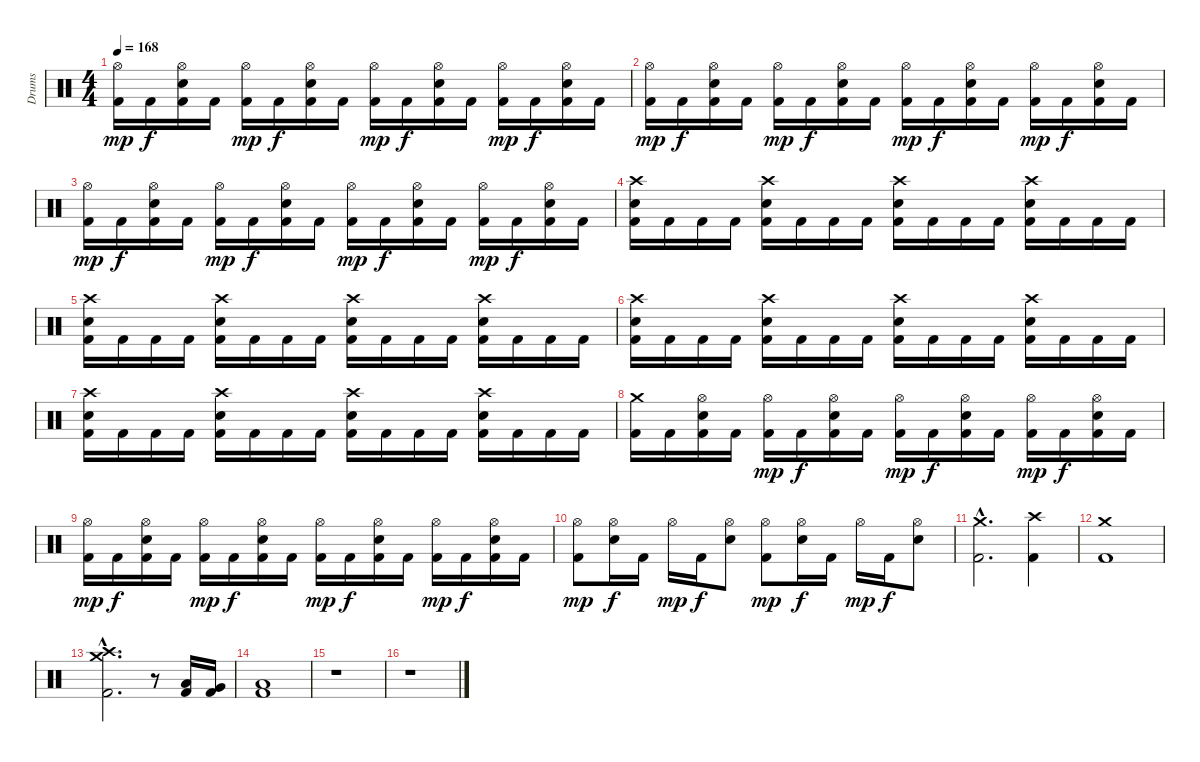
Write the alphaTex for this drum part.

\track ("Drums" "Drums") {instrument percussion}
\staff {score}
\articulation defaults
\ts (4 4)
\tempo 168
\clef neutral
\ks c
("Kick (hit) 2" "Hi-Hat (open)").16{dy mp} "Kick (hit) 2".16{dy f} ("Kick (hit) 2" "Electric Snare (hit)" "Hi-Hat (open)").16 "Kick (hit) 2".16 ("Kick (hit) 2" "Hi-Hat (open)").16{dy mp} "Kick (hit) 2".16{dy f} ("Kick (hit) 2" "Electric Snare (hit)" "Hi-Hat (open)").16 "Kick (hit) 2".16 ("Kick (hit) 2" "Hi-Hat (open)").16{dy mp} "Kick (hit) 2".16{dy f} ("Kick (hit) 2" "Electric Snare (hit)" "Hi-Hat (open)").16 "Kick (hit) 2".16 ("Kick (hit) 2" "Hi-Hat (open)").16{dy mp} "Kick (hit) 2".16{dy f} ("Kick (hit) 2" "Electric Snare (hit)" "Hi-Hat (open)").16 "Kick (hit) 2".16 |
("Kick (hit) 2" "Hi-Hat (open)").16{dy mp} "Kick (hit) 2".16{dy f} ("Kick (hit) 2" "Electric Snare (hit)" "Hi-Hat (open)").16 "Kick (hit) 2".16 ("Kick (hit) 2" "Hi-Hat (open)").16{dy mp} "Kick (hit) 2".16{dy f} ("Kick (hit) 2" "Electric Snare (hit)" "Hi-Hat (open)").16 "Kick (hit) 2".16 ("Kick (hit) 2" "Hi-Hat (open)").16{dy mp} "Kick (hit) 2".16{dy f} ("Kick (hit) 2" "Electric Snare (hit)" "Hi-Hat (open)").16 "Kick (hit) 2".16 ("Kick (hit) 2" "Hi-Hat (open)").16{dy mp} "Kick (hit) 2".16{dy f} ("Kick (hit) 2" "Electric Snare (hit)" "Hi-Hat (open)").16 "Kick (hit) 2".16 |
("Kick (hit) 2" "Hi-Hat (open)").16{dy mp} "Kick (hit) 2".16{dy f} ("Kick (hit) 2" "Electric Snare (hit)" "Hi-Hat (open)").16 "Kick (hit) 2".16 ("Kick (hit) 2" "Hi-Hat (open)").16{dy mp} "Kick (hit) 2".16{dy f} ("Kick (hit) 2" "Electric Snare (hit)" "Hi-Hat (open)").16 "Kick (hit) 2".16 ("Kick (hit) 2" "Hi-Hat (open)").16{dy mp} "Kick (hit) 2".16{dy f} ("Kick (hit) 2" "Electric Snare (hit)" "Hi-Hat (open)").16 "Kick (hit) 2".16 ("Kick (hit) 2" "Hi-Hat (open)").16{dy mp} "Kick (hit) 2".16{dy f} ("Kick (hit) 2" "Electric Snare (hit)" "Hi-Hat (open)").16 "Kick (hit) 2".16 |
\section ("" "")
("Kick (hit) 2" "Electric Snare (hit)" "Crash high (hit)").16 "Kick (hit) 2".16 "Kick (hit) 2".16 "Kick (hit) 2".16 ("Kick (hit) 2" "Electric Snare (hit)" "Crash high (hit)").16 "Kick (hit) 2".16 "Kick (hit) 2".16 "Kick (hit) 2".16 ("Kick (hit) 2" "Electric Snare (hit)" "Crash high (hit)").16 "Kick (hit) 2".16 "Kick (hit) 2".16 "Kick (hit) 2".16 ("Kick (hit) 2" "Electric Snare (hit)" "Crash high (hit)").16 "Kick (hit) 2".16 "Kick (hit) 2".16 "Kick (hit) 2".16 |
("Kick (hit) 2" "Electric Snare (hit)" "Crash high (hit)").16 "Kick (hit) 2".16 "Kick (hit) 2".16 "Kick (hit) 2".16 ("Kick (hit) 2" "Electric Snare (hit)" "Crash high (hit)").16 "Kick (hit) 2".16 "Kick (hit) 2".16 "Kick (hit) 2".16 ("Kick (hit) 2" "Electric Snare (hit)" "Crash high (hit)").16 "Kick (hit) 2".16 "Kick (hit) 2".16 "Kick (hit) 2".16 ("Kick (hit) 2" "Electric Snare (hit)" "Crash high (hit)").16 "Kick (hit) 2".16 "Kick (hit) 2".16 "Kick (hit) 2".16 |
("Kick (hit) 2" "Electric Snare (hit)" "Crash high (hit)").16 "Kick (hit) 2".16 "Kick (hit) 2".16 "Kick (hit) 2".16 ("Kick (hit) 2" "Electric Snare (hit)" "Crash high (hit)").16 "Kick (hit) 2".16 "Kick (hit) 2".16 "Kick (hit) 2".16 ("Kick (hit) 2" "Electric Snare (hit)" "Crash high (hit)").16 "Kick (hit) 2".16 "Kick (hit) 2".16 "Kick (hit) 2".16 ("Kick (hit) 2" "Electric Snare (hit)" "Crash high (hit)").16 "Kick (hit) 2".16 "Kick (hit) 2".16 "Kick (hit) 2".16 |
("Kick (hit) 2" "Electric Snare (hit)" "Crash high (hit)").16 "Kick (hit) 2".16 "Kick (hit) 2".16 "Kick (hit) 2".16 ("Kick (hit) 2" "Electric Snare (hit)" "Crash high (hit)").16 "Kick (hit) 2".16 "Kick (hit) 2".16 "Kick (hit) 2".16 ("Kick (hit) 2" "Electric Snare (hit)" "Crash high (hit)").16 "Kick (hit) 2".16 "Kick (hit) 2".16 "Kick (hit) 2".16 ("Kick (hit) 2" "Electric Snare (hit)" "Crash high (hit)").16 "Kick (hit) 2".16 "Kick (hit) 2".16 "Kick (hit) 2".16 |
("Kick (hit) 2" "Crash medium (hit)").16 "Kick (hit) 2".16 ("Kick (hit) 2" "Electric Snare (hit)" "Hi-Hat (open)").16 "Kick (hit) 2".16 ("Kick (hit) 2" "Hi-Hat (open)").16{dy mp} "Kick (hit) 2".16{dy f} ("Kick (hit) 2" "Electric Snare (hit)" "Hi-Hat (open)").16 "Kick (hit) 2".16 ("Kick (hit) 2" "Hi-Hat (open)").16{dy mp} "Kick (hit) 2".16{dy f} ("Kick (hit) 2" "Electric Snare (hit)" "Hi-Hat (open)").16 "Kick (hit) 2".16 ("Kick (hit) 2" "Hi-Hat (open)").16{dy mp} "Kick (hit) 2".16{dy f} ("Kick (hit) 2" "Electric Snare (hit)" "Hi-Hat (open)").16 "Kick (hit) 2".16 |
("Kick (hit) 2" "Hi-Hat (open)").16{dy mp} "Kick (hit) 2".16{dy f} ("Kick (hit) 2" "Electric Snare (hit)" "Hi-Hat (open)").16 "Kick (hit) 2".16 ("Kick (hit) 2" "Hi-Hat (open)").16{dy mp} "Kick (hit) 2".16{dy f} ("Kick (hit) 2" "Electric Snare (hit)" "Hi-Hat (open)").16 "Kick (hit) 2".16 ("Kick (hit) 2" "Hi-Hat (open)").16{dy mp} "Kick (hit) 2".16{dy f} ("Kick (hit) 2" "Electric Snare (hit)" "Hi-Hat (open)").16 "Kick (hit) 2".16 ("Kick (hit) 2" "Hi-Hat (open)").16{dy mp} "Kick (hit) 2".16{dy f} ("Kick (hit) 2" "Electric Snare (hit)" "Hi-Hat (open)").16 "Kick (hit) 2".16 |
("Kick (hit) 2" "Hi-Hat (open)").8{dy mp} ("Electric Snare (hit)" "Hi-Hat (open)").16{dy f} "Kick (hit) 2".16 "Hi-Hat (open)".16{dy mp} "Kick (hit) 2".16{dy f} ("Electric Snare (hit)" "Hi-Hat (open)").8 ("Kick (hit) 2" "Hi-Hat (open)").8{dy mp} ("Electric Snare (hit)" "Hi-Hat (open)").16{dy f} "Kick (hit) 2".16 "Hi-Hat (open)".16{dy mp} "Kick (hit) 2".16{dy f} ("Electric Snare (hit)" "Hi-Hat (open)").8 |
("Kick (hit) 2"{hac} "Crash medium (hit)"{hac}).2{d} ("Kick (hit) 2" "Crash high (hit)").4 |
("Kick (hit) 2" "Crash medium (hit)").1 |
("Kick (hit) 2"{hac} "Crash medium (hit)"{hac} "Crash high (hit)"{hac}).2{d} r.8 ("Kick (hit) 2" "Low Tom (hit)").16 ("Kick (hit) 2" "Very Low Tom (hit)").16 |
("Kick (hit) 2" "Low Floor Tom (hit)").1 |
\section ("" "")
r.1 |
r.1
